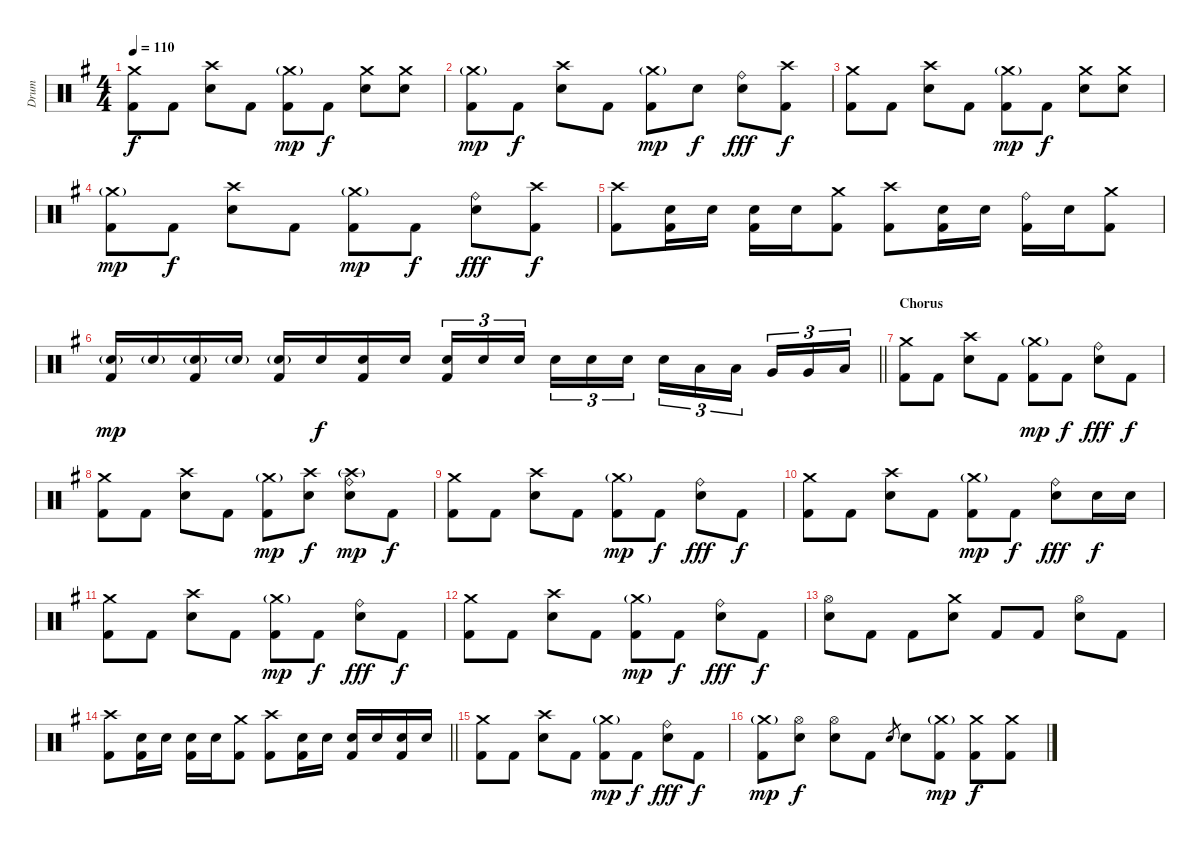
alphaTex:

\track ("Drum" "Drum") {instrument percussion}
\staff {score}
\articulation defaults
\ts (4 4)
\tempo 110
\clef neutral
\ks g
("Crash medium (hit)" "Kick (hit) 2").8{dy f} "Kick (hit) 2".8 ("Crash high (hit)" "Electric Snare (hit)").8 "Kick (hit) 2".8 ("Crash medium (hit)"{g} "Kick (hit) 2").8{dy mp} "Kick (hit) 2".8{dy f} ("Crash medium (hit)" "Electric Snare (hit)").8 ("Crash medium (hit)" "Electric Snare (hit)").8 |
("Crash medium (hit)"{g} "Kick (hit) 2").8{dy mp} "Kick (hit) 2".8{dy f} ("Crash high (hit)" "Electric Snare (hit)").8 "Kick (hit) 2".8 ("Crash medium (hit)"{g} "Kick (hit) 2").8{dy mp} "Electric Snare (hit)".8{dy f} ("Ride (bell)" "Electric Snare (hit)").8{dy fff} ("Crash high (hit)" "Kick (hit) 2").8{dy f} |
("Crash medium (hit)" "Kick (hit) 2").8 "Kick (hit) 2".8 ("Crash high (hit)" "Electric Snare (hit)").8 "Kick (hit) 2".8 ("Crash medium (hit)"{g} "Kick (hit) 2").8{dy mp} "Kick (hit) 2".8{dy f} ("Crash medium (hit)" "Electric Snare (hit)").8 ("Crash medium (hit)" "Electric Snare (hit)").8 |
("Crash medium (hit)"{g} "Kick (hit) 2").8{dy mp} "Kick (hit) 2".8{dy f} ("Crash high (hit)" "Electric Snare (hit)").8 "Kick (hit) 2".8 ("Crash medium (hit)"{g} "Kick (hit) 2").8{dy mp} "Kick (hit) 2".8{dy f} ("Ride (bell)" "Electric Snare (hit)").8{dy fff} ("Crash high (hit)" "Kick (hit) 2").8{dy f} |
("Crash high (hit)" "Kick (hit) 2").8 ("Electric Snare (hit)" "Kick (hit) 2").16 "Electric Snare (hit)".16 ("Electric Snare (hit)" "Kick (hit) 2").16 "Electric Snare (hit)".16 ("Crash medium (hit)" "Kick (hit) 2").8 ("Crash high (hit)" "Kick (hit) 2").8 ("Electric Snare (hit)" "Kick (hit) 2").16 "Electric Snare (hit)".16 ("Ride (bell)" "Kick (hit) 2").16 "Electric Snare (hit)".16 ("Crash medium (hit)" "Kick (hit) 2").8 |
\barLineRight lightlight
("Electric Snare (hit)"{g} "Kick (hit) 2").16{dy mp} "Electric Snare (hit)"{g}.16 ("Electric Snare (hit)"{g} "Kick (hit) 2").16 "Electric Snare (hit)"{g}.16 ("Electric Snare (hit)"{g} "Kick (hit) 2").16 "Electric Snare (hit)".16{dy f} ("Electric Snare (hit)" "Kick (hit) 2").16 "Electric Snare (hit)".16 ("Electric Snare (hit)" "Kick (hit) 2").16{tu (3 2)} "Electric Snare (hit)".16{tu (3 2)} "Electric Snare (hit)".16{tu (3 2) beam splitsecondary} "Electric Snare (hit)".16{tu (3 2)} "Electric Snare (hit)".16{tu (3 2)} "Electric Snare (hit)".16{tu (3 2)} "Electric Snare (hit)".16{tu (3 2)} "Low Tom (hit)".16{tu (3 2)} "Low Tom (hit)".16{tu (3 2) beam splitsecondary} "Very Low Tom (hit)".16{tu (3 2)} "Very Low Tom (hit)".16{tu (3 2)} "Low Floor Tom (hit)".16{tu (3 2)} |
\section ("" "Chorus")
("Crash medium (hit)" "Kick (hit) 2").8 "Kick (hit) 2".8 ("Crash high (hit)" "Electric Snare (hit)").8 "Kick (hit) 2".8 ("Crash medium (hit)"{g} "Kick (hit) 2").8{dy mp} "Kick (hit) 2".8{dy f} ("Ride (bell)" "Electric Snare (hit)").8{dy fff} "Kick (hit) 2".8{dy f} |
("Crash medium (hit)" "Kick (hit) 2").8 "Kick (hit) 2".8 ("Crash high (hit)" "Electric Snare (hit)").8 "Kick (hit) 2".8 ("Crash medium (hit)"{g} "Kick (hit) 2").8{dy mp} ("Crash high (hit)" "Electric Snare (hit)").8{dy f} ("Crash high (hit)"{g} "Ride (bell)" "Electric Snare (hit)").8{dy mp} "Kick (hit) 2".8{dy f} |
("Crash medium (hit)" "Kick (hit) 2").8 "Kick (hit) 2".8 ("Crash high (hit)" "Electric Snare (hit)").8 "Kick (hit) 2".8 ("Crash medium (hit)"{g} "Kick (hit) 2").8{dy mp} "Kick (hit) 2".8{dy f} ("Ride (bell)" "Electric Snare (hit)").8{dy fff} "Kick (hit) 2".8{dy f} |
("Crash medium (hit)" "Kick (hit) 2").8 "Kick (hit) 2".8 ("Crash high (hit)" "Electric Snare (hit)").8 "Kick (hit) 2".8 ("Crash medium (hit)"{g} "Kick (hit) 2").8{dy mp} "Kick (hit) 2".8{dy f} ("Ride (bell)" "Electric Snare (hit)").8{dy fff} "Electric Snare (hit)".16{dy f} "Electric Snare (hit)".16 |
("Crash medium (hit)" "Kick (hit) 2").8 "Kick (hit) 2".8 ("Crash high (hit)" "Electric Snare (hit)").8 "Kick (hit) 2".8 ("Crash medium (hit)"{g} "Kick (hit) 2").8{dy mp} "Kick (hit) 2".8{dy f} ("Ride (bell)" "Electric Snare (hit)").8{dy fff} "Kick (hit) 2".8{dy f} |
("Crash medium (hit)" "Kick (hit) 2").8 "Kick (hit) 2".8 ("Crash high (hit)" "Electric Snare (hit)").8 "Kick (hit) 2".8 ("Crash medium (hit)"{g} "Kick (hit) 2").8{dy mp} "Kick (hit) 2".8{dy f} ("Ride (bell)" "Electric Snare (hit)").8{dy fff} "Kick (hit) 2".8{dy f} |
("Hi-Hat (open)" "Electric Snare (hit)").8 "Kick (hit) 2".8 "Kick (hit) 2".8 ("Crash medium (hit)" "Electric Snare (hit)").8 "Kick (hit) 2".8 "Kick (hit) 2".8 ("Hi-Hat (open)" "Electric Snare (hit)").8 "Kick (hit) 2".8 |
\barLineRight lightlight
("Crash high (hit)" "Kick (hit) 2").8 ("Electric Snare (hit)" "Kick (hit) 2").16 "Electric Snare (hit)".16 ("Electric Snare (hit)" "Kick (hit) 2").16 "Electric Snare (hit)".16 ("Crash medium (hit)" "Kick (hit) 2").8 ("Crash high (hit)" "Kick (hit) 2").8 ("Electric Snare (hit)" "Kick (hit) 2").16 "Electric Snare (hit)".16 ("Electric Snare (hit)" "Kick (hit) 2").16 "Electric Snare (hit)".16 ("Electric Snare (hit)" "Kick (hit) 2").16 "Electric Snare (hit)".16 |
("Crash medium (hit)" "Kick (hit) 2").8 "Kick (hit) 2".8 ("Crash high (hit)" "Electric Snare (hit)").8 "Kick (hit) 2".8 ("Crash medium (hit)"{g} "Kick (hit) 2").8{dy mp} "Kick (hit) 2".8{dy f} ("Ride (bell)" "Electric Snare (hit)").8{dy fff} "Kick (hit) 2".8{dy f} |
("Crash medium (hit)"{g} "Kick (hit) 2").8{dy mp} ("Hi-Hat (open)" "Electric Snare (hit)").8{dy f} ("Hi-Hat (open)" "Electric Snare (hit)").8 "Kick (hit) 2".8 "Electric Snare (hit)".8{gr} "Electric Snare (hit)".8 ("Crash medium (hit)"{g} "Kick (hit) 2").8{dy mp} ("Crash medium (hit)" "Kick (hit) 2").8{dy f} ("Crash medium (hit)" "Kick (hit) 2").8
